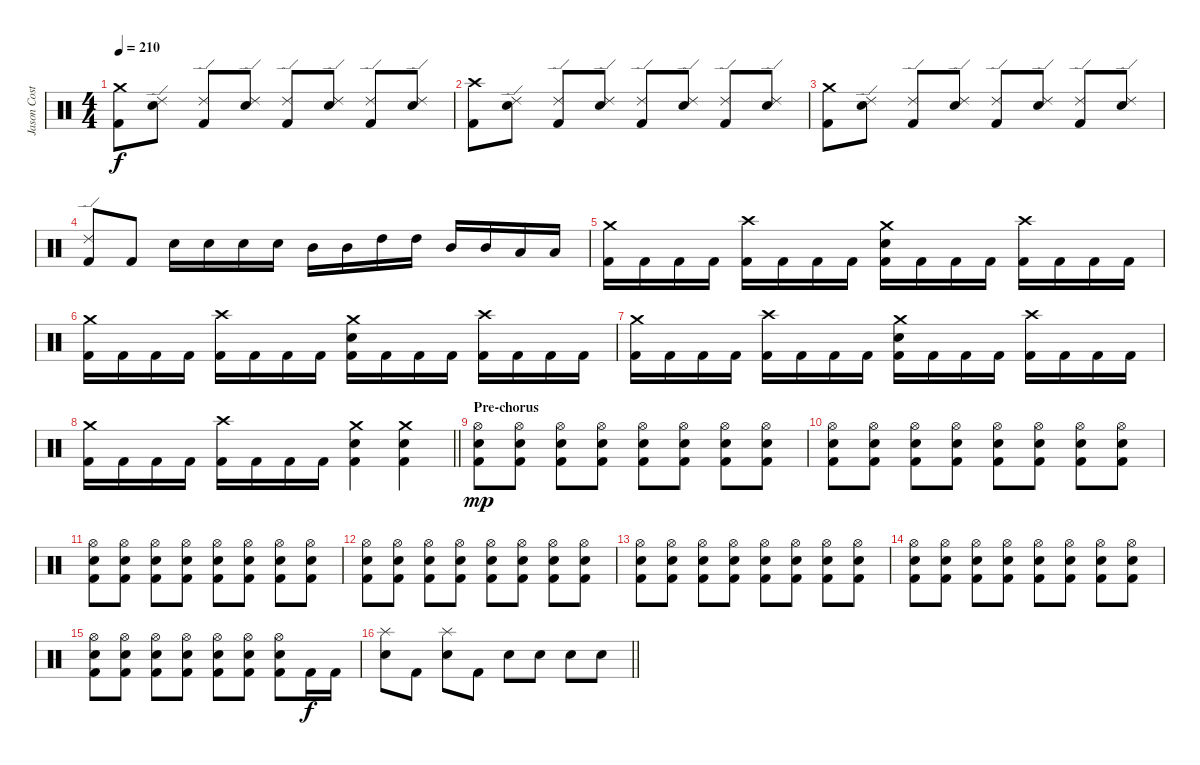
\track ("Jason Costa" "Jason Cost") {instrument percussion}
\staff {score}
\articulation defaults
\ts (4 4)
\tempo 210
\clef neutral
\ks c
("Crash medium (hit)" "Kick (hit) 2").8{dy f} ("Ride (edge) 2" "Electric Snare (hit)").8 ("Ride (edge) 2" "Kick (hit) 2").8 ("Ride (edge) 2" "Electric Snare (hit)").8 ("Ride (edge) 2" "Kick (hit) 2").8 ("Ride (edge) 2" "Electric Snare (hit)").8 ("Ride (edge) 2" "Kick (hit) 2").8 ("Ride (edge) 2" "Electric Snare (hit)").8 |
("Crash high (hit)" "Kick (hit) 2").8 ("Ride (edge) 2" "Electric Snare (hit)").8 ("Ride (edge) 2" "Kick (hit) 2").8 ("Ride (edge) 2" "Electric Snare (hit)").8 ("Ride (edge) 2" "Kick (hit) 2").8 ("Ride (edge) 2" "Electric Snare (hit)").8 ("Ride (edge) 2" "Kick (hit) 2").8 ("Ride (edge) 2" "Electric Snare (hit)").8 |
("Crash medium (hit)" "Kick (hit) 2").8 ("Ride (edge) 2" "Electric Snare (hit)").8 ("Ride (edge) 2" "Kick (hit) 2").8 ("Ride (edge) 2" "Electric Snare (hit)").8 ("Ride (edge) 2" "Kick (hit) 2").8 ("Ride (edge) 2" "Electric Snare (hit)").8 ("Ride (edge) 2" "Kick (hit) 2").8 ("Ride (edge) 2" "Electric Snare (hit)").8 |
("Ride (edge) 2" "Kick (hit) 2").8 "Kick (hit) 2".8 "Electric Snare (hit)".16 "Electric Snare (hit)".16 "Electric Snare (hit)".16 "Electric Snare (hit)".16 "Mid Tom (hit)".16 "Mid Tom (hit)".16 "High Tom (hit)".16 "High Tom (hit)".16 "Mid Tom (hit)".16 "Mid Tom (hit)".16 "Low Tom (hit)".16 "Low Tom (hit)".16 |
("Crash medium (hit)" "Kick (hit) 2").16 "Kick (hit) 2".16 "Kick (hit) 2".16 "Kick (hit) 2".16 ("Crash high (hit)" "Kick (hit) 2").16 "Kick (hit) 2".16 "Kick (hit) 2".16 "Kick (hit) 2".16 ("Crash medium (hit)" "Electric Snare (hit)" "Kick (hit) 2").16 "Kick (hit) 2".16 "Kick (hit) 2".16 "Kick (hit) 2".16 ("Crash high (hit)" "Kick (hit) 2").16 "Kick (hit) 2".16 "Kick (hit) 2".16 "Kick (hit) 2".16 |
("Crash medium (hit)" "Kick (hit) 2").16 "Kick (hit) 2".16 "Kick (hit) 2".16 "Kick (hit) 2".16 ("Crash high (hit)" "Kick (hit) 2").16 "Kick (hit) 2".16 "Kick (hit) 2".16 "Kick (hit) 2".16 ("Crash medium (hit)" "Electric Snare (hit)" "Kick (hit) 2").16 "Kick (hit) 2".16 "Kick (hit) 2".16 "Kick (hit) 2".16 ("Crash high (hit)" "Kick (hit) 2").16 "Kick (hit) 2".16 "Kick (hit) 2".16 "Kick (hit) 2".16 |
("Crash medium (hit)" "Kick (hit) 2").16 "Kick (hit) 2".16 "Kick (hit) 2".16 "Kick (hit) 2".16 ("Crash high (hit)" "Kick (hit) 2").16 "Kick (hit) 2".16 "Kick (hit) 2".16 "Kick (hit) 2".16 ("Crash medium (hit)" "Electric Snare (hit)" "Kick (hit) 2").16 "Kick (hit) 2".16 "Kick (hit) 2".16 "Kick (hit) 2".16 ("Crash high (hit)" "Kick (hit) 2").16 "Kick (hit) 2".16 "Kick (hit) 2".16 "Kick (hit) 2".16 |
\barLineRight lightlight
("Crash medium (hit)" "Kick (hit) 2").16 "Kick (hit) 2".16 "Kick (hit) 2".16 "Kick (hit) 2".16 ("Crash high (hit)" "Kick (hit) 2").16 "Kick (hit) 2".16 "Kick (hit) 2".16 "Kick (hit) 2".16 ("Crash medium (hit)" "Electric Snare (hit)" "Kick (hit) 2").4 ("Crash medium (hit)" "Electric Snare (hit)" "Kick (hit) 2").4 |
\section ("" "Pre-chorus")
("Hi-Hat (open)" "Electric Snare (hit)" "Kick (hit) 2").8{dy mp} ("Hi-Hat (open)" "Electric Snare (hit)" "Kick (hit) 2").8 ("Hi-Hat (open)" "Electric Snare (hit)" "Kick (hit) 2").8 ("Hi-Hat (open)" "Electric Snare (hit)" "Kick (hit) 2").8 ("Hi-Hat (open)" "Electric Snare (hit)" "Kick (hit) 2").8 ("Hi-Hat (open)" "Electric Snare (hit)" "Kick (hit) 2").8 ("Hi-Hat (open)" "Electric Snare (hit)" "Kick (hit) 2").8 ("Hi-Hat (open)" "Electric Snare (hit)" "Kick (hit) 2").8 |
("Hi-Hat (open)" "Electric Snare (hit)" "Kick (hit) 2").8 ("Hi-Hat (open)" "Electric Snare (hit)" "Kick (hit) 2").8 ("Hi-Hat (open)" "Electric Snare (hit)" "Kick (hit) 2").8 ("Hi-Hat (open)" "Electric Snare (hit)" "Kick (hit) 2").8 ("Hi-Hat (open)" "Electric Snare (hit)" "Kick (hit) 2").8 ("Hi-Hat (open)" "Electric Snare (hit)" "Kick (hit) 2").8 ("Hi-Hat (open)" "Electric Snare (hit)" "Kick (hit) 2").8 ("Hi-Hat (open)" "Electric Snare (hit)" "Kick (hit) 2").8 |
("Hi-Hat (open)" "Electric Snare (hit)" "Kick (hit) 2").8 ("Hi-Hat (open)" "Electric Snare (hit)" "Kick (hit) 2").8 ("Hi-Hat (open)" "Electric Snare (hit)" "Kick (hit) 2").8 ("Hi-Hat (open)" "Electric Snare (hit)" "Kick (hit) 2").8 ("Hi-Hat (open)" "Electric Snare (hit)" "Kick (hit) 2").8 ("Hi-Hat (open)" "Electric Snare (hit)" "Kick (hit) 2").8 ("Hi-Hat (open)" "Electric Snare (hit)" "Kick (hit) 2").8 ("Hi-Hat (open)" "Electric Snare (hit)" "Kick (hit) 2").8 |
("Hi-Hat (open)" "Electric Snare (hit)" "Kick (hit) 2").8 ("Hi-Hat (open)" "Electric Snare (hit)" "Kick (hit) 2").8 ("Hi-Hat (open)" "Electric Snare (hit)" "Kick (hit) 2").8 ("Hi-Hat (open)" "Electric Snare (hit)" "Kick (hit) 2").8 ("Hi-Hat (open)" "Electric Snare (hit)" "Kick (hit) 2").8 ("Hi-Hat (open)" "Electric Snare (hit)" "Kick (hit) 2").8 ("Hi-Hat (open)" "Electric Snare (hit)" "Kick (hit) 2").8 ("Hi-Hat (open)" "Electric Snare (hit)" "Kick (hit) 2").8 |
("Hi-Hat (open)" "Electric Snare (hit)" "Kick (hit) 2").8 ("Hi-Hat (open)" "Electric Snare (hit)" "Kick (hit) 2").8 ("Hi-Hat (open)" "Electric Snare (hit)" "Kick (hit) 2").8 ("Hi-Hat (open)" "Electric Snare (hit)" "Kick (hit) 2").8 ("Hi-Hat (open)" "Electric Snare (hit)" "Kick (hit) 2").8 ("Hi-Hat (open)" "Electric Snare (hit)" "Kick (hit) 2").8 ("Hi-Hat (open)" "Electric Snare (hit)" "Kick (hit) 2").8 ("Hi-Hat (open)" "Electric Snare (hit)" "Kick (hit) 2").8 |
("Hi-Hat (open)" "Electric Snare (hit)" "Kick (hit) 2").8 ("Hi-Hat (open)" "Electric Snare (hit)" "Kick (hit) 2").8 ("Hi-Hat (open)" "Electric Snare (hit)" "Kick (hit) 2").8 ("Hi-Hat (open)" "Electric Snare (hit)" "Kick (hit) 2").8 ("Hi-Hat (open)" "Electric Snare (hit)" "Kick (hit) 2").8 ("Hi-Hat (open)" "Electric Snare (hit)" "Kick (hit) 2").8 ("Hi-Hat (open)" "Electric Snare (hit)" "Kick (hit) 2").8 ("Hi-Hat (open)" "Electric Snare (hit)" "Kick (hit) 2").8 |
("Hi-Hat (open)" "Electric Snare (hit)" "Kick (hit) 2").8 ("Hi-Hat (open)" "Electric Snare (hit)" "Kick (hit) 2").8 ("Hi-Hat (open)" "Electric Snare (hit)" "Kick (hit) 2").8 ("Hi-Hat (open)" "Electric Snare (hit)" "Kick (hit) 2").8 ("Hi-Hat (open)" "Electric Snare (hit)" "Kick (hit) 2").8 ("Hi-Hat (open)" "Electric Snare (hit)" "Kick (hit) 2").8 ("Hi-Hat (open)" "Electric Snare (hit)" "Kick (hit) 2").8 "Kick (hit) 2".16{dy f} "Kick (hit) 2".16 |
\barLineRight lightlight
("Splash (hit)" "Electric Snare (hit)").8 "Kick (hit) 2".8 ("Splash (hit)" "Electric Snare (hit)").8 "Kick (hit) 2".8 "Electric Snare (hit)".8 "Electric Snare (hit)".8 "Electric Snare (hit)".8 "Electric Snare (hit)".8
